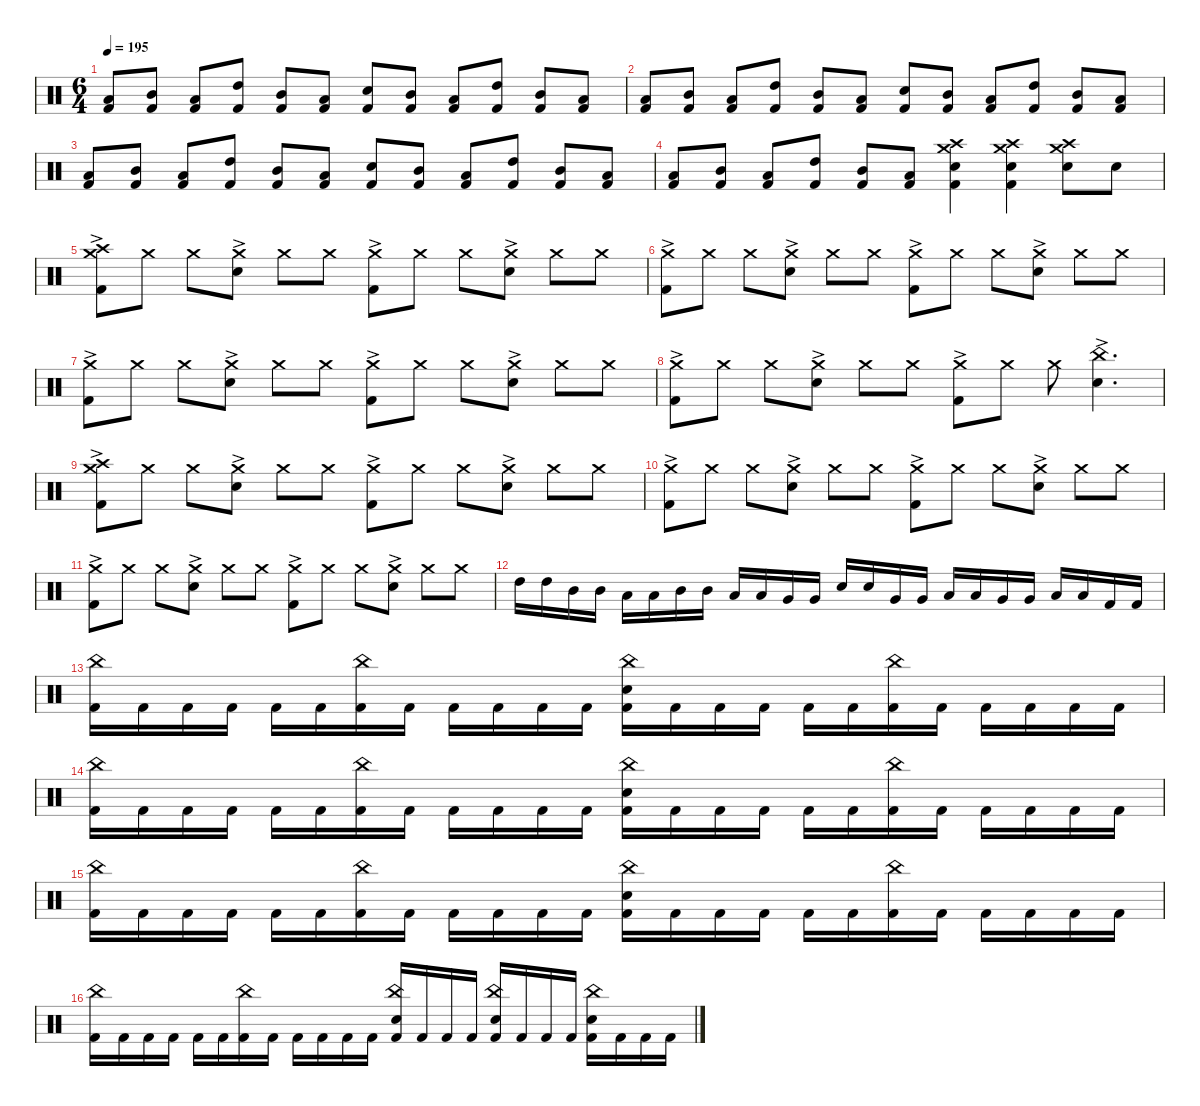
\defaultSystemsLayout 4
\hideDynamics
\bracketExtendMode nobrackets
\singleTrackTrackNamePolicy hidden
\multiTrackTrackNamePolicy hidden
\firstSystemTrackNameMode fullname
\firstSystemTrackNameOrientation horizontal
\otherSystemsTrackNameOrientation horizontal
\track ("Drums" "drm.") {instrument percussion}
\staff {score}
\articulation defaults
\ts (6 4)
\tempo 195
\clef neutral
\ks c
("Low Tom (hit)" "Kick (hit) 2").8{dy f beam Up} ("Mid Tom (hit)" "Kick (hit) 2").8{beam Up} ("Low Tom (hit)" "Kick (hit) 2").8{beam Up} ("High Tom (hit)" "Kick (hit) 2").8{beam Up} ("Mid Tom (hit)" "Kick (hit) 2").8{beam Up} ("Low Tom (hit)" "Kick (hit) 2").8{beam Up} ("Snare (hit) 2" "Kick (hit) 2").8{beam Up} ("Mid Tom (hit)" "Kick (hit) 2").8{beam Up} ("Low Tom (hit)" "Kick (hit) 2").8{beam Up} ("High Tom (hit)" "Kick (hit) 2").8{beam Up} ("Mid Tom (hit)" "Kick (hit) 2").8{beam Up} ("Low Tom (hit)" "Kick (hit) 2").8{beam Up} |
("Low Tom (hit)" "Kick (hit) 2").8{beam Up} ("Mid Tom (hit)" "Kick (hit) 2").8{beam Up} ("Low Tom (hit)" "Kick (hit) 2").8{beam Up} ("High Tom (hit)" "Kick (hit) 2").8{beam Up} ("Mid Tom (hit)" "Kick (hit) 2").8{beam Up} ("Low Tom (hit)" "Kick (hit) 2").8{beam Up} ("Snare (hit) 2" "Kick (hit) 2").8{beam Up} ("Mid Tom (hit)" "Kick (hit) 2").8{beam Up} ("Low Tom (hit)" "Kick (hit) 2").8{beam Up} ("High Tom (hit)" "Kick (hit) 2").8{beam Up} ("Mid Tom (hit)" "Kick (hit) 2").8{beam Up} ("Low Tom (hit)" "Kick (hit) 2").8{beam Up} |
("Low Tom (hit)" "Kick (hit) 2").8{beam Up} ("Mid Tom (hit)" "Kick (hit) 2").8{beam Up} ("Low Tom (hit)" "Kick (hit) 2").8{beam Up} ("High Tom (hit)" "Kick (hit) 2").8{beam Up} ("Mid Tom (hit)" "Kick (hit) 2").8{beam Up} ("Low Tom (hit)" "Kick (hit) 2").8{beam Up} ("Snare (hit) 2" "Kick (hit) 2").8{beam Up} ("Mid Tom (hit)" "Kick (hit) 2").8{beam Up} ("Low Tom (hit)" "Kick (hit) 2").8{beam Up} ("High Tom (hit)" "Kick (hit) 2").8{beam Up} ("Mid Tom (hit)" "Kick (hit) 2").8{beam Up} ("Low Tom (hit)" "Kick (hit) 2").8{beam Up} |
("Low Tom (hit)" "Kick (hit) 2").8{beam Up} ("Mid Tom (hit)" "Kick (hit) 2").8{beam Up} ("Low Tom (hit)" "Kick (hit) 2").8{beam Up} ("High Tom (hit)" "Kick (hit) 2").8{beam Up} ("Mid Tom (hit)" "Kick (hit) 2").8{beam Up} ("Low Tom (hit)" "Kick (hit) 2").8{beam Up} ("Crash high (hit)" "Crash medium (hit)" "Snare (hit) 2" "Kick (hit) 2").4{beam Down} ("Crash high (hit)" "Crash medium (hit)" "Snare (hit) 2" "Kick (hit) 2").4{beam Down} ("Crash high (hit)" "Crash medium (hit)" "Snare (hit) 2").8{beam Down} "Snare (hit) 2".8{beam Down} |
("Crash medium (hit)"{ac} "Crash high (hit)" "Kick (hit) 2").8{beam Down} "Crash medium (hit)".8{beam Down} "Crash medium (hit)".8{beam Down} ("Crash medium (hit)"{ac} "Snare (hit) 2").8{beam Down} "Crash medium (hit)".8{beam Down} "Crash medium (hit)".8{beam Down} ("Crash medium (hit)"{ac} "Kick (hit) 2").8{beam Down} "Crash medium (hit)".8{beam Down} "Crash medium (hit)".8{beam Down} ("Crash medium (hit)"{ac} "Snare (hit) 2").8{beam Down} "Crash medium (hit)".8{beam Down} "Crash medium (hit)".8{beam Down} |
("Crash medium (hit)"{ac} "Kick (hit) 2").8{beam Down} "Crash medium (hit)".8{beam Down} "Crash medium (hit)".8{beam Down} ("Crash medium (hit)"{ac} "Snare (hit) 2").8{beam Down} "Crash medium (hit)".8{beam Down} "Crash medium (hit)".8{beam Down} ("Crash medium (hit)"{ac} "Kick (hit) 2").8{beam Down} "Crash medium (hit)".8{beam Down} "Crash medium (hit)".8{beam Down} ("Crash medium (hit)"{ac} "Snare (hit) 2").8{beam Down} "Crash medium (hit)".8{beam Down} "Crash medium (hit)".8{beam Down} |
("Crash medium (hit)"{ac} "Kick (hit) 2").8{beam Down} "Crash medium (hit)".8{beam Down} "Crash medium (hit)".8{beam Down} ("Crash medium (hit)"{ac} "Snare (hit) 2").8{beam Down} "Crash medium (hit)".8{beam Down} "Crash medium (hit)".8{beam Down} ("Crash medium (hit)"{ac} "Kick (hit) 2").8{beam Down} "Crash medium (hit)".8{beam Down} "Crash medium (hit)".8{beam Down} ("Crash medium (hit)"{ac} "Snare (hit) 2").8{beam Down} "Crash medium (hit)".8{beam Down} "Crash medium (hit)".8{beam Down} |
("Crash medium (hit)"{ac} "Kick (hit) 2").8{beam Down} "Crash medium (hit)".8{beam Down} "Crash medium (hit)".8{beam Down} ("Crash medium (hit)"{ac} "Snare (hit) 2").8{beam Down} "Crash medium (hit)".8{beam Down} "Crash medium (hit)".8{beam Down} ("Crash medium (hit)"{ac} "Kick (hit) 2").8{beam Down} "Crash medium (hit)".8{beam Down} "Crash medium (hit)".8{beam Down} ("China (hit)"{ac} "Snare (hit) 2").4{d beam Down} |
("Crash medium (hit)"{ac} "Crash high (hit)" "Kick (hit) 2").8{dy mf beam Down} "Crash medium (hit)".8{beam Down} "Crash medium (hit)".8{beam Down} ("Crash medium (hit)"{ac} "Snare (hit) 2").8{dy f beam Down} "Crash medium (hit)".8{dy mf beam Down} "Crash medium (hit)".8{beam Down} ("Crash medium (hit)"{ac} "Kick (hit) 2").8{dy f beam Down} "Crash medium (hit)".8{dy mf beam Down} "Crash medium (hit)".8{beam Down} ("Crash medium (hit)"{ac} "Snare (hit) 2").8{dy f beam Down} "Crash medium (hit)".8{dy mf beam Down} "Crash medium (hit)".8{beam Down} |
("Crash medium (hit)"{ac} "Kick (hit) 2").8{dy f beam Down} "Crash medium (hit)".8{dy mf beam Down} "Crash medium (hit)".8{beam Down} ("Crash medium (hit)"{ac} "Snare (hit) 2").8{dy f beam Down} "Crash medium (hit)".8{dy mf beam Down} "Crash medium (hit)".8{beam Down} ("Crash medium (hit)"{ac} "Kick (hit) 2").8{dy f beam Down} "Crash medium (hit)".8{dy mf beam Down} "Crash medium (hit)".8{beam Down} ("Crash medium (hit)"{ac} "Snare (hit) 2").8{dy f beam Down} "Crash medium (hit)".8{dy mf beam Down} "Crash medium (hit)".8{beam Down} |
("Crash medium (hit)"{ac} "Kick (hit) 2").8{dy f beam Down} "Crash medium (hit)".8{dy mf beam Down} "Crash medium (hit)".8{beam Down} ("Crash medium (hit)"{ac} "Snare (hit) 2").8{dy f beam Down} "Crash medium (hit)".8{dy mf beam Down} "Crash medium (hit)".8{beam Down} ("Crash medium (hit)"{ac} "Kick (hit) 2").8{dy f beam Down} "Crash medium (hit)".8{dy mf beam Down} "Crash medium (hit)".8{beam Down} ("Crash medium (hit)"{ac} "Snare (hit) 2").8{dy f beam Down} "Crash medium (hit)".8{dy mf beam Down} "Crash medium (hit)".8{beam Down} |
"High Tom (hit)".16{dy fff beam Down} "High Tom (hit)".16{beam Down} "Mid Tom (hit)".16{beam Down} "Mid Tom (hit)".16{beam Down} "Low Tom (hit)".16{beam Down} "Low Tom (hit)".16{beam Down} "Mid Tom (hit)".16{beam Up} "Mid Tom (hit)".16{beam Up} "Low Tom (hit)".16{beam Up} "Low Tom (hit)".16{beam Up} "Very Low Tom (hit)".16{beam Up} "Very Low Tom (hit)".16{beam Up} "Snare (hit) 2".16{beam Up} "Snare (hit) 2".16{beam Up} "Very Low Tom (hit)".16{beam Up} "Very Low Tom (hit)".16{beam Up} "Low Tom (hit)".16{beam Up} "Low Tom (hit)".16{beam Up} "Very Low Tom (hit)".16{beam Up} "Very Low Tom (hit)".16{beam Up} "Low Tom (hit)".16{beam Up} "Low Tom (hit)".16{beam Up} "Kick (hit) 2".16{beam Up} "Kick (hit) 2".16{beam Up} |
("China (hit)" "Kick (hit) 2").16{dy f beam Down} "Kick (hit) 2".16{beam Down} "Kick (hit) 2".16{beam Down} "Kick (hit) 2".16{beam Down} "Kick (hit) 2".16{beam Down} "Kick (hit) 2".16{beam Down} ("China (hit)" "Kick (hit) 2").16{beam Down} "Kick (hit) 2".16{beam Down} "Kick (hit) 2".16{beam Down} "Kick (hit) 2".16{beam Down} "Kick (hit) 2".16{beam Down} "Kick (hit) 2".16{beam Down} ("China (hit)" "Snare (hit) 2" "Kick (hit) 2").16{beam Down} "Kick (hit) 2".16{beam Down} "Kick (hit) 2".16{beam Down} "Kick (hit) 2".16{beam Down} "Kick (hit) 2".16{beam Down} "Kick (hit) 2".16{beam Down} ("China (hit)" "Kick (hit) 2").16{beam Down} "Kick (hit) 2".16{beam Down} "Kick (hit) 2".16{beam Down} "Kick (hit) 2".16{beam Down} "Kick (hit) 2".16{beam Down} "Kick (hit) 2".16{beam Down} |
("China (hit)" "Kick (hit) 2").16{beam Down} "Kick (hit) 2".16{beam Down} "Kick (hit) 2".16{beam Down} "Kick (hit) 2".16{beam Down} "Kick (hit) 2".16{beam Down} "Kick (hit) 2".16{beam Down} ("China (hit)" "Kick (hit) 2").16{beam Down} "Kick (hit) 2".16{beam Down} "Kick (hit) 2".16{beam Down} "Kick (hit) 2".16{beam Down} "Kick (hit) 2".16{beam Down} "Kick (hit) 2".16{beam Down} ("China (hit)" "Snare (hit) 2" "Kick (hit) 2").16{beam Down} "Kick (hit) 2".16{beam Down} "Kick (hit) 2".16{beam Down} "Kick (hit) 2".16{beam Down} "Kick (hit) 2".16{beam Down} "Kick (hit) 2".16{beam Down} ("China (hit)" "Kick (hit) 2").16{beam Down} "Kick (hit) 2".16{beam Down} "Kick (hit) 2".16{beam Down} "Kick (hit) 2".16{beam Down} "Kick (hit) 2".16{beam Down} "Kick (hit) 2".16{beam Down} |
("China (hit)" "Kick (hit) 2").16{beam Down} "Kick (hit) 2".16{beam Down} "Kick (hit) 2".16{beam Down} "Kick (hit) 2".16{beam Down} "Kick (hit) 2".16{beam Down} "Kick (hit) 2".16{beam Down} ("China (hit)" "Kick (hit) 2").16{beam Down} "Kick (hit) 2".16{beam Down} "Kick (hit) 2".16{beam Down} "Kick (hit) 2".16{beam Down} "Kick (hit) 2".16{beam Down} "Kick (hit) 2".16{beam Down} ("China (hit)" "Snare (hit) 2" "Kick (hit) 2").16{beam Down} "Kick (hit) 2".16{beam Down} "Kick (hit) 2".16{beam Down} "Kick (hit) 2".16{beam Down} "Kick (hit) 2".16{beam Down} "Kick (hit) 2".16{beam Down} ("China (hit)" "Kick (hit) 2").16{beam Down} "Kick (hit) 2".16{beam Down} "Kick (hit) 2".16{beam Down} "Kick (hit) 2".16{beam Down} "Kick (hit) 2".16{beam Down} "Kick (hit) 2".16{beam Down} |
("China (hit)" "Kick (hit) 2").16{beam Down} "Kick (hit) 2".16{beam Down} "Kick (hit) 2".16{beam Down} "Kick (hit) 2".16{beam Down} "Kick (hit) 2".16{beam Down} "Kick (hit) 2".16{beam Down} ("China (hit)" "Kick (hit) 2").16{beam Down} "Kick (hit) 2".16{beam Down} "Kick (hit) 2".16{beam Down} "Kick (hit) 2".16{beam Down} "Kick (hit) 2".16{beam Down} "Kick (hit) 2".16{beam Down} ("China (hit)" "Snare (hit) 2" "Kick (hit) 2").16{beam Up} "Kick (hit) 2".16{beam Up} "Kick (hit) 2".16{beam Up} "Kick (hit) 2".16{beam Up} ("China (hit)" "Snare (hit) 2" "Kick (hit) 2").16{beam Up} "Kick (hit) 2".16{beam Up} "Kick (hit) 2".16{beam Down} "Kick (hit) 2".16{beam Down} ("China (hit)" "Snare (hit) 2" "Kick (hit) 2").16{beam Down} "Kick (hit) 2".16{beam Down} "Kick (hit) 2".16{beam Down} "Kick (hit) 2".16{beam Down}
